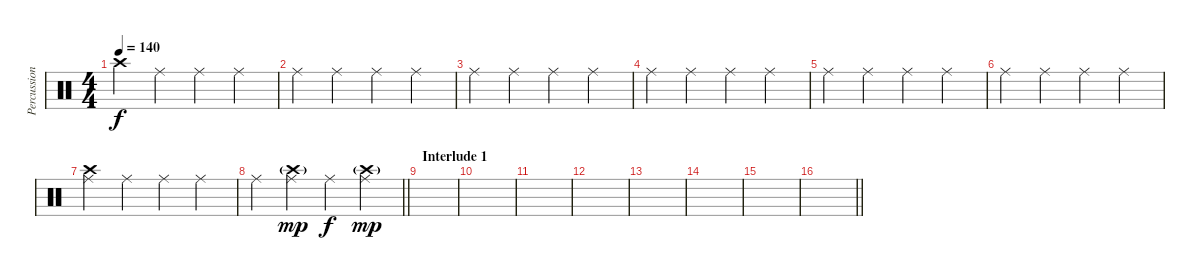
\track ("Percussion" "Percussion") {instrument percussion}
\staff {score}
\articulation defaults
\ts (4 4)
\tempo 140
\clef neutral
\ks c "Crash high (hit)".4{dy f} "Ride (middle)".4 "Ride (middle)".4 "Ride (middle)".4
|
"Ride (middle)".4 "Ride (middle)".4 "Ride (middle)".4 "Ride (middle)".4 |
"Ride (middle)".4 "Ride (middle)".4 "Ride (middle)".4 "Ride (middle)".4 |
"Ride (middle)".4 "Ride (middle)".4 "Ride (middle)".4 "Ride (middle)".4 |
"Ride (middle)".4 "Ride (middle)".4 "Ride (middle)".4 "Ride (middle)".4 |
"Ride (middle)".4 "Ride (middle)".4 "Ride (middle)".4 "Ride (middle)".4 |
("Crash high (hit)" "Ride (middle)").4 "Ride (middle)".4 "Ride (middle)".4 "Ride (middle)".4 |
\barLineRight lightlight "Ride (middle)".4
("Crash high (hit)"{g} "Ride (middle)").4{dy mp} "Ride (middle)".4{dy f} ("Crash high (hit)"{g} "Ride (middle)").4{dy mp} |
\section ("" "Interlude 1")
|
|
|
|
|
|
|
\barLineRight lightlight
